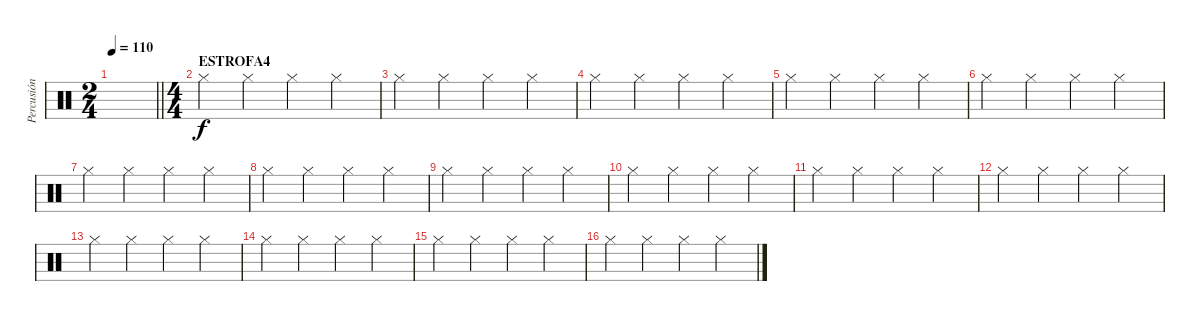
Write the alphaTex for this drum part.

\track ("Percusión" "Percusión") {instrument percussion}
\staff {score}
\articulation defaults
\ts (2 4)
\tempo 110
\clef neutral
\barLineRight lightlight
\ks c
|
\ts (4 4)
\section ("" "ESTROFA4")
"Hi-Hat (closed)".4 "Hi-Hat (closed)".4 "Hi-Hat (closed)".4 "Hi-Hat (closed)".4 |
"Hi-Hat (closed)".4 "Hi-Hat (closed)".4 "Hi-Hat (closed)".4 "Hi-Hat (closed)".4 |
"Hi-Hat (closed)".4 "Hi-Hat (closed)".4 "Hi-Hat (closed)".4 "Hi-Hat (closed)".4 |
"Hi-Hat (closed)".4 "Hi-Hat (closed)".4 "Hi-Hat (closed)".4 "Hi-Hat (closed)".4 |
"Hi-Hat (closed)".4 "Hi-Hat (closed)".4 "Hi-Hat (closed)".4 "Hi-Hat (closed)".4 |
"Hi-Hat (closed)".4 "Hi-Hat (closed)".4 "Hi-Hat (closed)".4 "Hi-Hat (closed)".4 |
"Hi-Hat (closed)".4 "Hi-Hat (closed)".4 "Hi-Hat (closed)".4 "Hi-Hat (closed)".4 |
"Hi-Hat (closed)".4 "Hi-Hat (closed)".4 "Hi-Hat (closed)".4 "Hi-Hat (closed)".4 |
"Hi-Hat (closed)".4 "Hi-Hat (closed)".4 "Hi-Hat (closed)".4 "Hi-Hat (closed)".4 |
"Hi-Hat (closed)".4 "Hi-Hat (closed)".4 "Hi-Hat (closed)".4 "Hi-Hat (closed)".4 |
"Hi-Hat (closed)".4 "Hi-Hat (closed)".4 "Hi-Hat (closed)".4 "Hi-Hat (closed)".4 |
"Hi-Hat (closed)".4 "Hi-Hat (closed)".4 "Hi-Hat (closed)".4 "Hi-Hat (closed)".4 |
"Hi-Hat (closed)".4 "Hi-Hat (closed)".4 "Hi-Hat (closed)".4 "Hi-Hat (closed)".4 |
"Hi-Hat (closed)".4 "Hi-Hat (closed)".4 "Hi-Hat (closed)".4 "Hi-Hat (closed)".4 |
"Hi-Hat (closed)".4 "Hi-Hat (closed)".4 "Hi-Hat (closed)".4 "Hi-Hat (closed)".4
